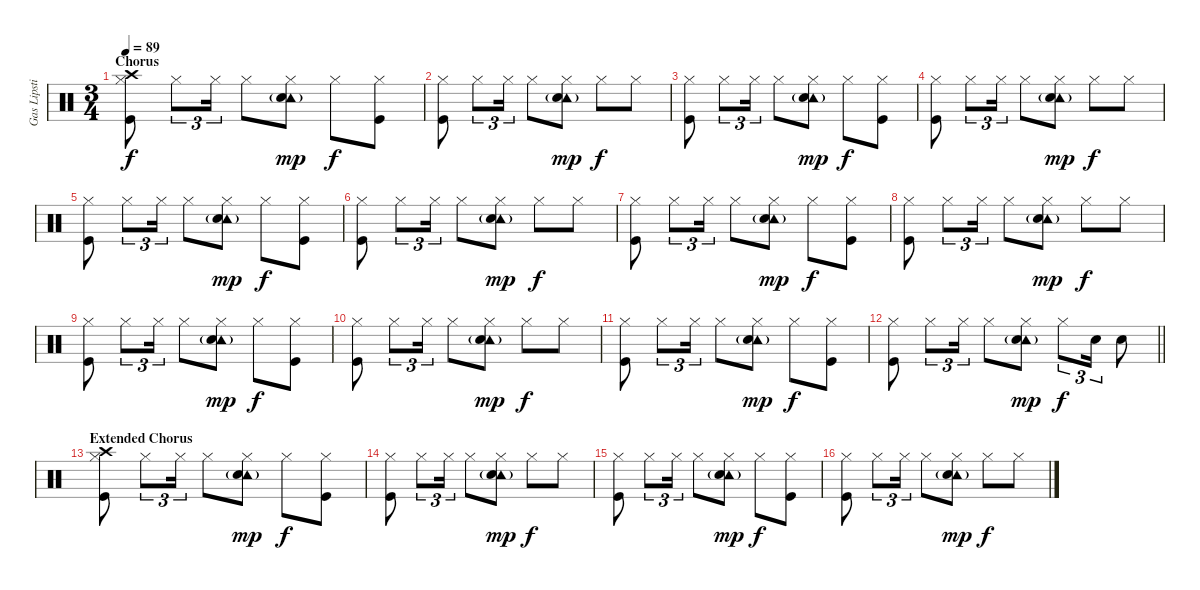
\track ("Gas Lipstick (Drums)" "Gas Lipsti") {instrument percussion}
\staff {score}
\articulation defaults
\ts (3 4)
\section ("" "Chorus")
\tempo 89
\clef neutral
\ks c
("Crash high (hit)" "Hi-Hat (closed)" "Kick (hit)").8{dy f} "Hi-Hat (closed)".8{tu (3 2)} "Hi-Hat (closed)".16{tu (3 2)} "Hi-Hat (closed)".8 ("Tambourine (hit)"{g} "Hi-Hat (closed)" "Snare (hit) 2").8{dy mp} "Hi-Hat (closed)".8{dy f} ("Hi-Hat (closed)" "Kick (hit)").8 |
("Hi-Hat (closed)" "Kick (hit)").8 "Hi-Hat (closed)".8{tu (3 2)} "Hi-Hat (closed)".16{tu (3 2)} "Hi-Hat (closed)".8 ("Tambourine (hit)"{g} "Hi-Hat (closed)" "Snare (hit) 2").8{dy mp} "Hi-Hat (closed)".8{dy f} "Hi-Hat (closed)".8 |
("Hi-Hat (closed)" "Kick (hit)").8 "Hi-Hat (closed)".8{tu (3 2)} "Hi-Hat (closed)".16{tu (3 2)} "Hi-Hat (closed)".8 ("Tambourine (hit)"{g} "Hi-Hat (closed)" "Snare (hit) 2").8{dy mp} "Hi-Hat (closed)".8{dy f} ("Hi-Hat (closed)" "Kick (hit)").8 |
("Hi-Hat (closed)" "Kick (hit)").8 "Hi-Hat (closed)".8{tu (3 2)} "Hi-Hat (closed)".16{tu (3 2)} "Hi-Hat (closed)".8 ("Tambourine (hit)"{g} "Hi-Hat (closed)" "Snare (hit) 2").8{dy mp} "Hi-Hat (closed)".8{dy f} "Hi-Hat (closed)".8 |
("Hi-Hat (closed)" "Kick (hit)").8 "Hi-Hat (closed)".8{tu (3 2)} "Hi-Hat (closed)".16{tu (3 2)} "Hi-Hat (closed)".8 ("Tambourine (hit)"{g} "Hi-Hat (closed)" "Snare (hit) 2").8{dy mp} "Hi-Hat (closed)".8{dy f} ("Hi-Hat (closed)" "Kick (hit)").8 |
("Hi-Hat (closed)" "Kick (hit)").8 "Hi-Hat (closed)".8{tu (3 2)} "Hi-Hat (closed)".16{tu (3 2)} "Hi-Hat (closed)".8 ("Tambourine (hit)"{g} "Hi-Hat (closed)" "Snare (hit) 2").8{dy mp} "Hi-Hat (closed)".8{dy f} "Hi-Hat (closed)".8 |
("Hi-Hat (closed)" "Kick (hit)").8 "Hi-Hat (closed)".8{tu (3 2)} "Hi-Hat (closed)".16{tu (3 2)} "Hi-Hat (closed)".8 ("Tambourine (hit)"{g} "Hi-Hat (closed)" "Snare (hit) 2").8{dy mp} "Hi-Hat (closed)".8{dy f} ("Hi-Hat (closed)" "Kick (hit)").8 |
("Hi-Hat (closed)" "Kick (hit)").8 "Hi-Hat (closed)".8{tu (3 2)} "Hi-Hat (closed)".16{tu (3 2)} "Hi-Hat (closed)".8 ("Tambourine (hit)"{g} "Hi-Hat (closed)" "Snare (hit) 2").8{dy mp} "Hi-Hat (closed)".8{dy f} "Hi-Hat (closed)".8 |
("Hi-Hat (closed)" "Kick (hit)").8 "Hi-Hat (closed)".8{tu (3 2)} "Hi-Hat (closed)".16{tu (3 2)} "Hi-Hat (closed)".8 ("Tambourine (hit)"{g} "Hi-Hat (closed)" "Snare (hit) 2").8{dy mp} "Hi-Hat (closed)".8{dy f} ("Hi-Hat (closed)" "Kick (hit)").8 |
("Hi-Hat (closed)" "Kick (hit)").8 "Hi-Hat (closed)".8{tu (3 2)} "Hi-Hat (closed)".16{tu (3 2)} "Hi-Hat (closed)".8 ("Tambourine (hit)"{g} "Hi-Hat (closed)" "Snare (hit) 2").8{dy mp} "Hi-Hat (closed)".8{dy f} "Hi-Hat (closed)".8 |
("Hi-Hat (closed)" "Kick (hit)").8 "Hi-Hat (closed)".8{tu (3 2)} "Hi-Hat (closed)".16{tu (3 2)} "Hi-Hat (closed)".8 ("Tambourine (hit)"{g} "Hi-Hat (closed)" "Snare (hit) 2").8{dy mp} "Hi-Hat (closed)".8{dy f} ("Hi-Hat (closed)" "Kick (hit)").8 |
\barLineRight lightlight
("Hi-Hat (closed)" "Kick (hit)").8 "Hi-Hat (closed)".8{tu (3 2)} "Hi-Hat (closed)".16{tu (3 2)} "Hi-Hat (closed)".8 ("Tambourine (hit)"{g} "Hi-Hat (closed)" "Snare (hit) 2").8{dy mp} "Hi-Hat (closed)".8{tu (3 2) dy f} "Snare (hit) 2".16{tu (3 2)} "Snare (hit) 2".8 |
\section ("" "Extended Chorus")
("Crash high (hit)" "Hi-Hat (closed)" "Kick (hit)").8 "Hi-Hat (closed)".8{tu (3 2)} "Hi-Hat (closed)".16{tu (3 2)} "Hi-Hat (closed)".8 ("Tambourine (hit)"{g} "Hi-Hat (closed)" "Snare (hit) 2").8{dy mp} "Hi-Hat (closed)".8{dy f} ("Hi-Hat (closed)" "Kick (hit)").8 |
("Hi-Hat (closed)" "Kick (hit)").8 "Hi-Hat (closed)".8{tu (3 2)} "Hi-Hat (closed)".16{tu (3 2)} "Hi-Hat (closed)".8 ("Tambourine (hit)"{g} "Hi-Hat (closed)" "Snare (hit) 2").8{dy mp} "Hi-Hat (closed)".8{dy f} "Hi-Hat (closed)".8 |
("Hi-Hat (closed)" "Kick (hit)").8 "Hi-Hat (closed)".8{tu (3 2)} "Hi-Hat (closed)".16{tu (3 2)} "Hi-Hat (closed)".8 ("Tambourine (hit)"{g} "Hi-Hat (closed)" "Snare (hit) 2").8{dy mp} "Hi-Hat (closed)".8{dy f} ("Hi-Hat (closed)" "Kick (hit)").8 |
("Hi-Hat (closed)" "Kick (hit)").8 "Hi-Hat (closed)".8{tu (3 2)} "Hi-Hat (closed)".16{tu (3 2)} "Hi-Hat (closed)".8 ("Tambourine (hit)"{g} "Hi-Hat (closed)" "Snare (hit) 2").8{dy mp} "Hi-Hat (closed)".8{dy f} "Hi-Hat (closed)".8
